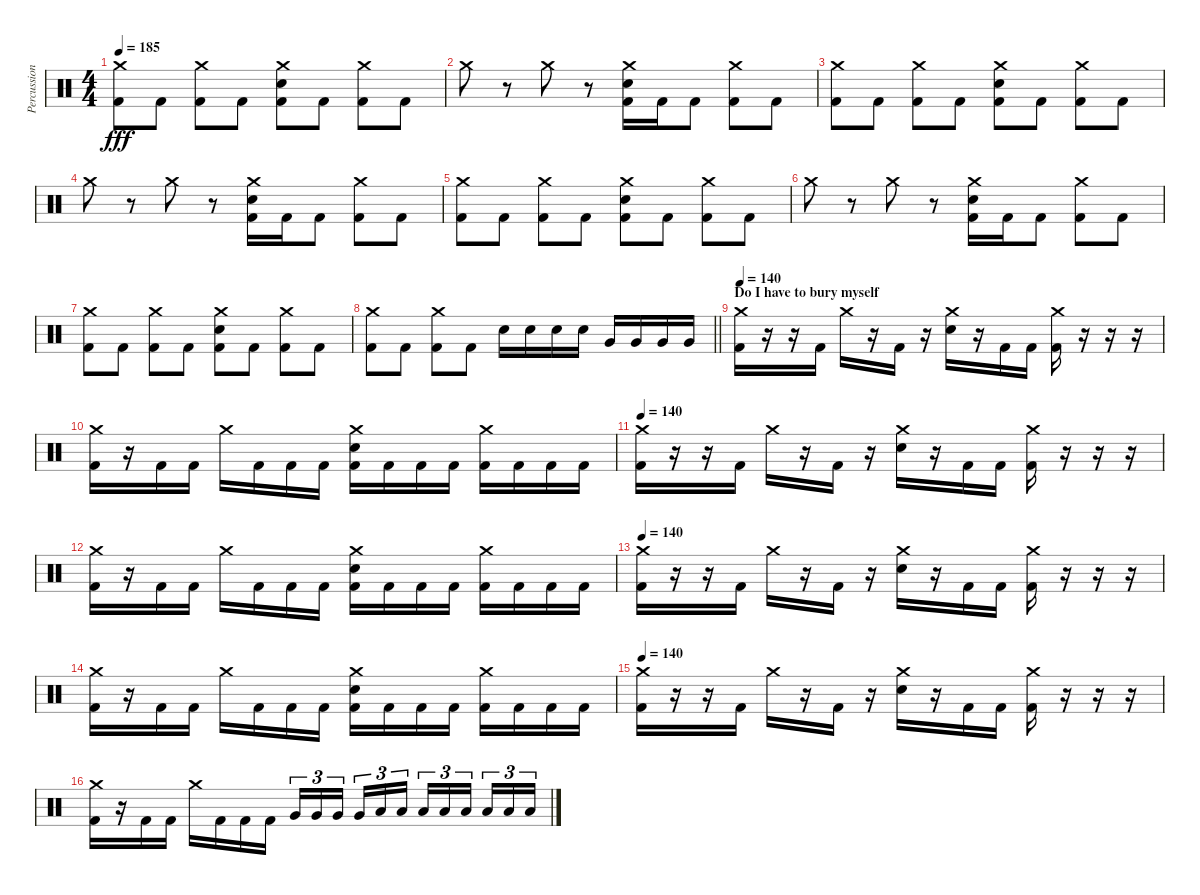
\track ("Percussion" "Percussion") {instrument percussion}
\staff {score}
\articulation defaults
\ts (4 4)
\tempo 185
\clef neutral
\ks c
("Crash medium (hit)" "Kick (hit) 2").8{dy fff} "Kick (hit) 2".8 ("Crash medium (hit)" "Kick (hit) 2").8 "Kick (hit) 2".8 ("Crash medium (hit)" "Electric Snare (hit)" "Kick (hit) 2").8 "Kick (hit) 2".8 ("Crash medium (hit)" "Kick (hit) 2").8 "Kick (hit) 2".8 |
"Crash medium (hit)".8 r.8 "Crash medium (hit)".8 r.8 ("Crash medium (hit)" "Electric Snare (hit)" "Kick (hit) 2").16 "Kick (hit) 2".16 "Kick (hit) 2".8 ("Crash medium (hit)" "Kick (hit) 2").8 "Kick (hit) 2".8 |
("Crash medium (hit)" "Kick (hit) 2").8 "Kick (hit) 2".8 ("Crash medium (hit)" "Kick (hit) 2").8 "Kick (hit) 2".8 ("Crash medium (hit)" "Electric Snare (hit)" "Kick (hit) 2").8 "Kick (hit) 2".8 ("Crash medium (hit)" "Kick (hit) 2").8 "Kick (hit) 2".8 |
"Crash medium (hit)".8 r.8 "Crash medium (hit)".8 r.8 ("Crash medium (hit)" "Electric Snare (hit)" "Kick (hit) 2").16 "Kick (hit) 2".16 "Kick (hit) 2".8 ("Crash medium (hit)" "Kick (hit) 2").8 "Kick (hit) 2".8 |
("Crash medium (hit)" "Kick (hit) 2").8 "Kick (hit) 2".8 ("Crash medium (hit)" "Kick (hit) 2").8 "Kick (hit) 2".8 ("Crash medium (hit)" "Electric Snare (hit)" "Kick (hit) 2").8 "Kick (hit) 2".8 ("Crash medium (hit)" "Kick (hit) 2").8 "Kick (hit) 2".8 |
"Crash medium (hit)".8 r.8 "Crash medium (hit)".8 r.8 ("Crash medium (hit)" "Electric Snare (hit)" "Kick (hit) 2").16 "Kick (hit) 2".16 "Kick (hit) 2".8 ("Crash medium (hit)" "Kick (hit) 2").8 "Kick (hit) 2".8 |
("Crash medium (hit)" "Kick (hit) 2").8 "Kick (hit) 2".8 ("Crash medium (hit)" "Kick (hit) 2").8 "Kick (hit) 2".8 ("Crash medium (hit)" "Electric Snare (hit)" "Kick (hit) 2").8 "Kick (hit) 2".8 ("Crash medium (hit)" "Kick (hit) 2").8 "Kick (hit) 2".8 |
\barLineRight lightlight
("Crash medium (hit)" "Kick (hit) 2").8 "Kick (hit) 2".8 ("Crash medium (hit)" "Kick (hit) 2").8 "Kick (hit) 2".8 "Electric Snare (hit)".16 "Electric Snare (hit)".16 "Electric Snare (hit)".16 "Electric Snare (hit)".16 "Very Low Tom (hit)".16 "Very Low Tom (hit)".16 "Very Low Tom (hit)".16 "Very Low Tom (hit)".16 |
\section ("" "Do I have to bury myself")
\tempo 140
("Crash medium (hit)" "Kick (hit) 2").16 r.16 r.16 "Kick (hit) 2".16 "Crash medium (hit)".16 r.16 "Kick (hit) 2".16 r.16 ("Crash medium (hit)" "Electric Snare (hit)").16 r.16 "Kick (hit) 2".16 "Kick (hit) 2".16 ("Crash medium (hit)" "Kick (hit) 2").16 r.16 r.16 r.16 |
("Crash medium (hit)" "Kick (hit) 2").16 r.16 "Kick (hit) 2".16 "Kick (hit) 2".16 "Crash medium (hit)".16 "Kick (hit) 2".16 "Kick (hit) 2".16 "Kick (hit) 2".16 ("Crash medium (hit)" "Electric Snare (hit)" "Kick (hit) 2").16 "Kick (hit) 2".16 "Kick (hit) 2".16 "Kick (hit) 2".16 ("Crash medium (hit)" "Kick (hit) 2").16 "Kick (hit) 2".16 "Kick (hit) 2".16 "Kick (hit) 2".16 |
\tempo 140
("Crash medium (hit)" "Kick (hit) 2").16 r.16 r.16 "Kick (hit) 2".16 "Crash medium (hit)".16 r.16 "Kick (hit) 2".16 r.16 ("Crash medium (hit)" "Electric Snare (hit)").16 r.16 "Kick (hit) 2".16 "Kick (hit) 2".16 ("Crash medium (hit)" "Kick (hit) 2").16 r.16 r.16 r.16 |
("Crash medium (hit)" "Kick (hit) 2").16 r.16 "Kick (hit) 2".16 "Kick (hit) 2".16 "Crash medium (hit)".16 "Kick (hit) 2".16 "Kick (hit) 2".16 "Kick (hit) 2".16 ("Crash medium (hit)" "Electric Snare (hit)" "Kick (hit) 2").16 "Kick (hit) 2".16 "Kick (hit) 2".16 "Kick (hit) 2".16 ("Crash medium (hit)" "Kick (hit) 2").16 "Kick (hit) 2".16 "Kick (hit) 2".16 "Kick (hit) 2".16 |
\tempo 140
("Crash medium (hit)" "Kick (hit) 2").16 r.16 r.16 "Kick (hit) 2".16 "Crash medium (hit)".16 r.16 "Kick (hit) 2".16 r.16 ("Crash medium (hit)" "Electric Snare (hit)").16 r.16 "Kick (hit) 2".16 "Kick (hit) 2".16 ("Crash medium (hit)" "Kick (hit) 2").16 r.16 r.16 r.16 |
("Crash medium (hit)" "Kick (hit) 2").16 r.16 "Kick (hit) 2".16 "Kick (hit) 2".16 "Crash medium (hit)".16 "Kick (hit) 2".16 "Kick (hit) 2".16 "Kick (hit) 2".16 ("Crash medium (hit)" "Electric Snare (hit)" "Kick (hit) 2").16 "Kick (hit) 2".16 "Kick (hit) 2".16 "Kick (hit) 2".16 ("Crash medium (hit)" "Kick (hit) 2").16 "Kick (hit) 2".16 "Kick (hit) 2".16 "Kick (hit) 2".16 |
\tempo 140
("Crash medium (hit)" "Kick (hit) 2").16 r.16 r.16 "Kick (hit) 2".16 "Crash medium (hit)".16 r.16 "Kick (hit) 2".16 r.16 ("Crash medium (hit)" "Electric Snare (hit)").16 r.16 "Kick (hit) 2".16 "Kick (hit) 2".16 ("Crash medium (hit)" "Kick (hit) 2").16 r.16 r.16 r.16 |
("Crash medium (hit)" "Kick (hit) 2").16 r.16 "Kick (hit) 2".16 "Kick (hit) 2".16 "Crash medium (hit)".16 "Kick (hit) 2".16 "Kick (hit) 2".16 "Kick (hit) 2".16 "Very Low Tom (hit)".16{tu (3 2)} "Very Low Tom (hit)".16{tu (3 2)} "Very Low Tom (hit)".16{tu (3 2) beam splitsecondary} "Very Low Tom (hit)".16{tu (3 2)} "Low Tom (hit)".16{tu (3 2)} "Low Tom (hit)".16{tu (3 2)} "Low Tom (hit)".16{tu (3 2)} "Low Tom (hit)".16{tu (3 2)} "Low Floor Tom (hit)".16{tu (3 2) beam splitsecondary} "Low Floor Tom (hit)".16{tu (3 2)} "Low Floor Tom (hit)".16{tu (3 2)} "Low Floor Tom (hit)".16{tu (3 2)}
